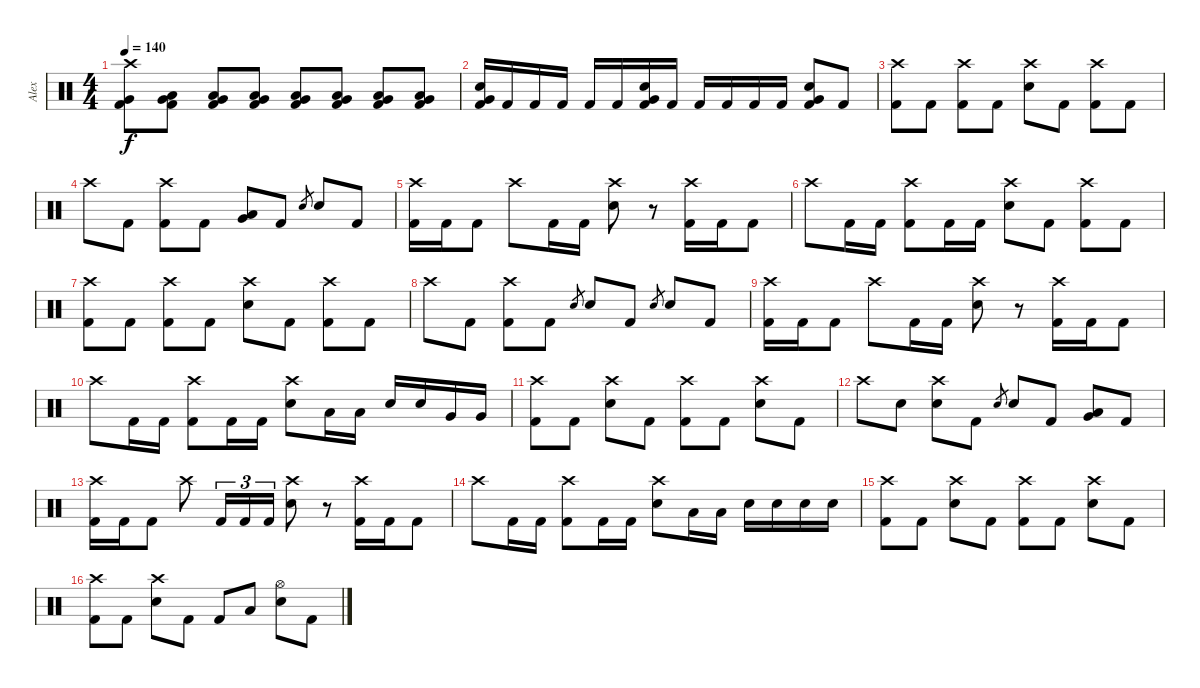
\track ("Alex" "Alex") {instrument percussion}
\staff {score}
\articulation defaults
\ts (4 4)
\tempo 140
\clef neutral
\ks c
("Crash high (hit)" "Very Low Tom (hit)" "Kick (hit) 2").8{dy f} ("Low Tom (hit)" "Very Low Tom (hit)" "Kick (hit) 2").8 ("Low Tom (hit)" "Very Low Tom (hit)" "Kick (hit) 2").8 ("Low Tom (hit)" "Very Low Tom (hit)" "Kick (hit) 2").8 ("Low Tom (hit)" "Very Low Tom (hit)" "Kick (hit) 2").8 ("Low Tom (hit)" "Very Low Tom (hit)" "Kick (hit) 2").8 ("Low Tom (hit)" "Very Low Tom (hit)" "Kick (hit) 2").8 ("Low Tom (hit)" "Very Low Tom (hit)" "Kick (hit) 2").8 |
("Very Low Tom (hit)" "Electric Snare (hit)" "Kick (hit) 2").16 "Kick (hit) 2".16 "Kick (hit) 2".16 "Kick (hit) 2".16 "Kick (hit) 2".16 "Kick (hit) 2".16 ("Very Low Tom (hit)" "Electric Snare (hit)" "Kick (hit) 2").16 "Kick (hit) 2".16 "Kick (hit) 2".16 "Kick (hit) 2".16 "Kick (hit) 2".16 "Kick (hit) 2".16 ("Very Low Tom (hit)" "Electric Snare (hit)" "Kick (hit) 2").8 "Kick (hit) 2".8 |
("Crash high (hit)" "Kick (hit) 2").8 "Kick (hit) 2".8 ("Crash high (hit)" "Kick (hit) 2").8 "Kick (hit) 2".8 ("Crash high (hit)" "Electric Snare (hit)").8 "Kick (hit) 2".8 ("Crash high (hit)" "Kick (hit) 2").8 "Kick (hit) 2".8 |
"Crash high (hit)".8 "Kick (hit) 2".8 ("Crash high (hit)" "Kick (hit) 2").8 "Kick (hit) 2".8 ("Low Tom (hit)" "Very Low Tom (hit)").8 "Kick (hit) 2".8 "Electric Snare (hit)".8{gr} "Electric Snare (hit)".8 "Kick (hit) 2".8 |
("Crash high (hit)" "Kick (hit) 2").16 "Kick (hit) 2".16 "Kick (hit) 2".8 "Crash high (hit)".8 "Kick (hit) 2".16 "Kick (hit) 2".16 ("Crash high (hit)" "Electric Snare (hit)").8 r.8 ("Crash high (hit)" "Kick (hit) 2").16 "Kick (hit) 2".16 "Kick (hit) 2".8 |
"Crash high (hit)".8 "Kick (hit) 2".16 "Kick (hit) 2".16 ("Crash high (hit)" "Kick (hit) 2").8 "Kick (hit) 2".16 "Kick (hit) 2".16 ("Crash high (hit)" "Electric Snare (hit)").8 "Kick (hit) 2".8 ("Crash high (hit)" "Kick (hit) 2").8 "Kick (hit) 2".8 |
("Crash high (hit)" "Kick (hit) 2").8 "Kick (hit) 2".8 ("Crash high (hit)" "Kick (hit) 2").8 "Kick (hit) 2".8 ("Crash high (hit)" "Electric Snare (hit)").8 "Kick (hit) 2".8 ("Crash high (hit)" "Kick (hit) 2").8 "Kick (hit) 2".8 |
"Crash high (hit)".8 "Kick (hit) 2".8 ("Crash high (hit)" "Kick (hit) 2").8 "Kick (hit) 2".8 "Electric Snare (hit)".8{gr} "Electric Snare (hit)".8 "Kick (hit) 2".8 "Electric Snare (hit)".8{gr} "Electric Snare (hit)".8 "Kick (hit) 2".8 |
("Crash high (hit)" "Kick (hit) 2").16 "Kick (hit) 2".16 "Kick (hit) 2".8 "Crash high (hit)".8 "Kick (hit) 2".16 "Kick (hit) 2".16 ("Crash high (hit)" "Electric Snare (hit)").8 r.8 ("Crash high (hit)" "Kick (hit) 2").16 "Kick (hit) 2".16 "Kick (hit) 2".8 |
"Crash high (hit)".8 "Kick (hit) 2".16 "Kick (hit) 2".16 ("Crash high (hit)" "Kick (hit) 2").8 "Kick (hit) 2".16 "Kick (hit) 2".16 ("Crash high (hit)" "Electric Snare (hit)").8 "Low Tom (hit)".16 "Low Tom (hit)".16 "Electric Snare (hit)".16 "Electric Snare (hit)".16 "Very Low Tom (hit)".16 "Very Low Tom (hit)".16 |
("Crash high (hit)" "Kick (hit) 2").8 "Kick (hit) 2".8 ("Crash high (hit)" "Electric Snare (hit)").8 "Kick (hit) 2".8 ("Crash high (hit)" "Kick (hit) 2").8 "Kick (hit) 2".8 ("Crash high (hit)" "Electric Snare (hit)").8 "Kick (hit) 2".8 |
"Crash high (hit)".8 "Electric Snare (hit)".8 ("Crash high (hit)" "Electric Snare (hit)").8 "Kick (hit) 2".8 "Electric Snare (hit)".8{gr} "Electric Snare (hit)".8 "Kick (hit) 2".8 ("Low Tom (hit)" "Very Low Tom (hit)").8 "Kick (hit) 2".8 |
("Crash high (hit)" "Kick (hit) 2").16 "Kick (hit) 2".16 "Kick (hit) 2".8 "Crash high (hit)".8 "Kick (hit) 2".16{tu (3 2)} "Kick (hit) 2".16{tu (3 2)} "Kick (hit) 2".16{tu (3 2)} ("Crash high (hit)" "Electric Snare (hit)").8 r.8 ("Crash high (hit)" "Kick (hit) 2").16 "Kick (hit) 2".16 "Kick (hit) 2".8 |
"Crash high (hit)".8 "Kick (hit) 2".16 "Kick (hit) 2".16 ("Crash high (hit)" "Kick (hit) 2").8 "Kick (hit) 2".16 "Kick (hit) 2".16 ("Crash high (hit)" "Electric Snare (hit)").8 "Low Tom (hit)".16 "Low Tom (hit)".16 "Electric Snare (hit)".16 "Electric Snare (hit)".16 "Electric Snare (hit)".16 "Electric Snare (hit)".16 |
("Crash high (hit)" "Kick (hit) 2").8 "Kick (hit) 2".8 ("Crash high (hit)" "Electric Snare (hit)").8 "Kick (hit) 2".8 ("Crash high (hit)" "Kick (hit) 2").8 "Kick (hit) 2".8 ("Crash high (hit)" "Electric Snare (hit)").8 "Kick (hit) 2".8 |
("Crash high (hit)" "Kick (hit) 2").8 "Kick (hit) 2".8 ("Crash high (hit)" "Electric Snare (hit)").8 "Kick (hit) 2".8 "Kick (hit) 2".8 "Low Tom (hit)".8 ("Hi-Hat (open)" "Electric Snare (hit)").8 "Kick (hit) 2".8
